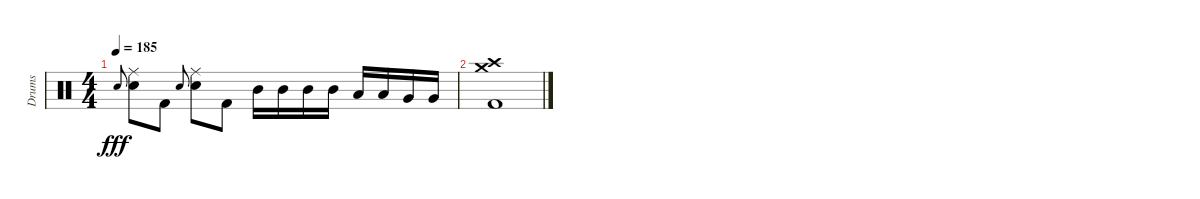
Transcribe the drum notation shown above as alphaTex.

\track ("Drums" "Drums") {instrument percussion}
\staff {score}
\articulation defaults
\ts (4 4)
\tempo 185
\clef neutral
\ks c "Electric Snare (hit)".8{gr onbeat dy fff}
("Ride (middle)" "Electric Snare (hit)").8 "Kick (hit) 2".8 "Electric Snare (hit)".8{gr onbeat} ("Ride (middle)" "Electric Snare (hit)").8 "Kick (hit) 2".8 "Mid Tom (hit)".16 "Mid Tom (hit)".16 "Mid Tom (hit)".16 "Mid Tom (hit)".16 "Low Tom (hit)".16 "Low Tom (hit)".16 "Very Low Tom (hit)".16 "Very Low Tom (hit)".16 |
("Crash high (hit)" "Crash medium (hit)" "Kick (hit) 2").1
